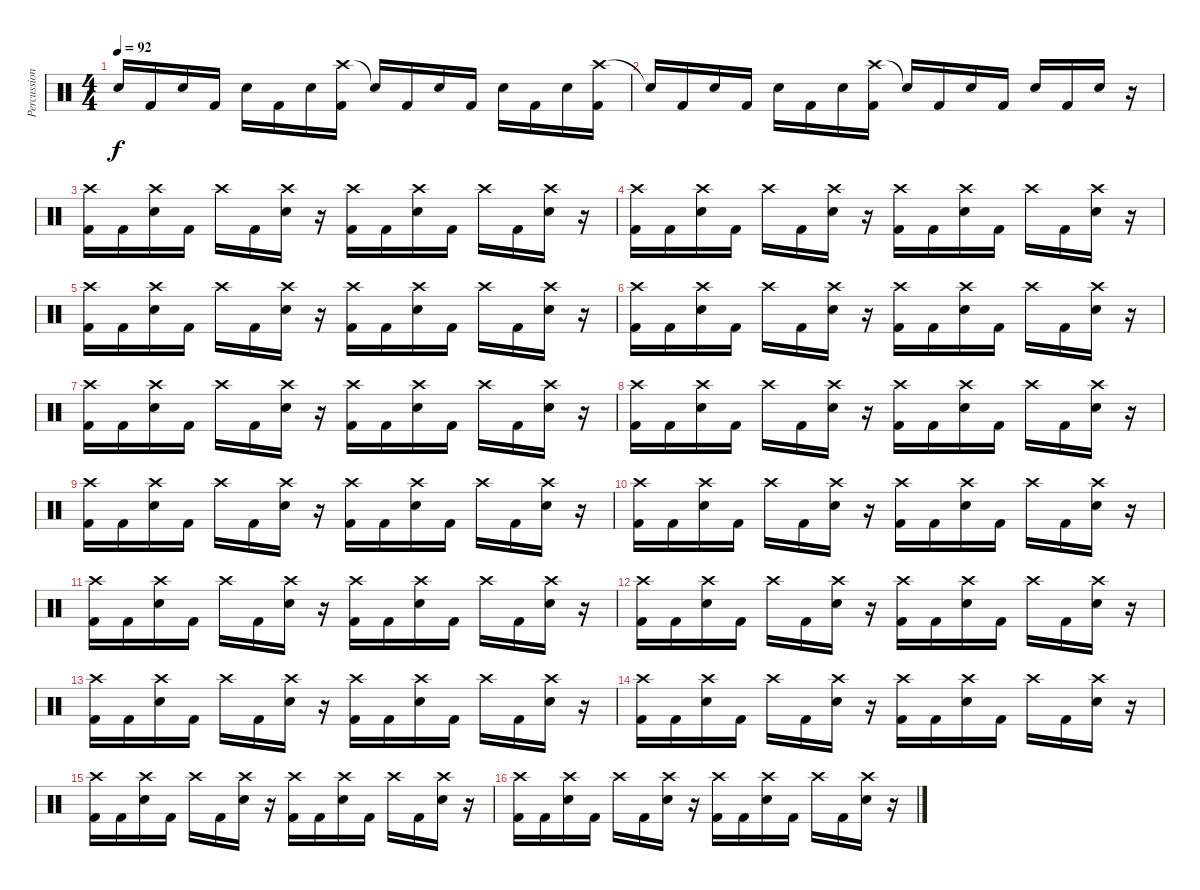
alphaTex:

\track ("Percussion" "Percussion") {instrument percussion}
\staff {score}
\articulation defaults
\ts (4 4)
\tempo 92
\clef neutral
\ks c "Snare (hit)"{t}.16{dy f} "Kick (hit) 2".16 "Snare (hit) 2".16 "Kick (hit) 2".16 "Snare (hit) 2".16 "Kick (hit) 2".16 "Snare (hit) 2".16
("Crash high (hit)" "Kick (hit) 2").16 "Snare (hit)"{t}.16 "Kick (hit) 2".16 "Snare (hit) 2".16 "Kick (hit) 2".16 "Snare (hit) 2".16 "Kick (hit) 2".16 "Snare (hit) 2".16 ("Crash high (hit)" "Kick (hit) 2").16 |
"Snare (hit)"{t}.16 "Kick (hit) 2".16 "Snare (hit) 2".16 "Kick (hit) 2".16 "Snare (hit) 2".16 "Kick (hit) 2".16 "Snare (hit) 2".16 ("Crash high (hit)" "Kick (hit) 2").16 "Snare (hit)"{t}.16 "Kick (hit) 2".16 "Snare (hit) 2".16 "Kick (hit) 2".16 "Snare (hit) 2".16 "Kick (hit) 2".16 "Snare (hit) 2".16 r.16 |
("Crash high (hit)" "Kick (hit) 2").16 "Kick (hit) 2".16 ("Crash high (hit)" "Snare (hit) 2").16 "Kick (hit) 2".16 "Crash high (hit)".16 "Kick (hit) 2".16 ("Crash high (hit)" "Snare (hit) 2").16 r.16 ("Crash high (hit)" "Kick (hit) 2").16 "Kick (hit) 2".16 ("Crash high (hit)" "Snare (hit) 2").16 "Kick (hit) 2".16 "Crash high (hit)".16 "Kick (hit) 2".16 ("Crash high (hit)" "Snare (hit) 2").16 r.16 |
("Crash high (hit)" "Kick (hit) 2").16 "Kick (hit) 2".16 ("Crash high (hit)" "Snare (hit) 2").16 "Kick (hit) 2".16 "Crash high (hit)".16 "Kick (hit) 2".16 ("Crash high (hit)" "Snare (hit) 2").16 r.16 ("Crash high (hit)" "Kick (hit) 2").16 "Kick (hit) 2".16 ("Crash high (hit)" "Snare (hit) 2").16 "Kick (hit) 2".16 "Crash high (hit)".16 "Kick (hit) 2".16 ("Crash high (hit)" "Snare (hit) 2").16 r.16 |
("Crash high (hit)" "Kick (hit) 2").16 "Kick (hit) 2".16 ("Crash high (hit)" "Snare (hit) 2").16 "Kick (hit) 2".16 "Crash high (hit)".16 "Kick (hit) 2".16 ("Crash high (hit)" "Snare (hit) 2").16 r.16 ("Crash high (hit)" "Kick (hit) 2").16 "Kick (hit) 2".16 ("Crash high (hit)" "Snare (hit) 2").16 "Kick (hit) 2".16 "Crash high (hit)".16 "Kick (hit) 2".16 ("Crash high (hit)" "Snare (hit) 2").16 r.16 |
("Crash high (hit)" "Kick (hit) 2").16 "Kick (hit) 2".16 ("Crash high (hit)" "Snare (hit) 2").16 "Kick (hit) 2".16 "Crash high (hit)".16 "Kick (hit) 2".16 ("Crash high (hit)" "Snare (hit) 2").16 r.16 ("Crash high (hit)" "Kick (hit) 2").16 "Kick (hit) 2".16 ("Crash high (hit)" "Snare (hit) 2").16 "Kick (hit) 2".16 "Crash high (hit)".16 "Kick (hit) 2".16 ("Crash high (hit)" "Snare (hit) 2").16 r.16 |
("Crash high (hit)" "Kick (hit) 2").16 "Kick (hit) 2".16 ("Crash high (hit)" "Snare (hit) 2").16 "Kick (hit) 2".16 "Crash high (hit)".16 "Kick (hit) 2".16 ("Crash high (hit)" "Snare (hit) 2").16 r.16 ("Crash high (hit)" "Kick (hit) 2").16 "Kick (hit) 2".16 ("Crash high (hit)" "Snare (hit) 2").16 "Kick (hit) 2".16 "Crash high (hit)".16 "Kick (hit) 2".16 ("Crash high (hit)" "Snare (hit) 2").16 r.16 |
("Crash high (hit)" "Kick (hit) 2").16 "Kick (hit) 2".16 ("Crash high (hit)" "Snare (hit) 2").16 "Kick (hit) 2".16 "Crash high (hit)".16 "Kick (hit) 2".16 ("Crash high (hit)" "Snare (hit) 2").16 r.16 ("Crash high (hit)" "Kick (hit) 2").16 "Kick (hit) 2".16 ("Crash high (hit)" "Snare (hit) 2").16 "Kick (hit) 2".16 "Crash high (hit)".16 "Kick (hit) 2".16 ("Crash high (hit)" "Snare (hit) 2").16 r.16 |
("Crash high (hit)" "Kick (hit) 2").16 "Kick (hit) 2".16 ("Crash high (hit)" "Snare (hit) 2").16 "Kick (hit) 2".16 "Crash high (hit)".16 "Kick (hit) 2".16 ("Crash high (hit)" "Snare (hit) 2").16 r.16 ("Crash high (hit)" "Kick (hit) 2").16 "Kick (hit) 2".16 ("Crash high (hit)" "Snare (hit) 2").16 "Kick (hit) 2".16 "Crash high (hit)".16 "Kick (hit) 2".16 ("Crash high (hit)" "Snare (hit) 2").16 r.16 |
("Crash high (hit)" "Kick (hit) 2").16 "Kick (hit) 2".16 ("Crash high (hit)" "Snare (hit) 2").16 "Kick (hit) 2".16 "Crash high (hit)".16 "Kick (hit) 2".16 ("Crash high (hit)" "Snare (hit) 2").16 r.16 ("Crash high (hit)" "Kick (hit) 2").16 "Kick (hit) 2".16 ("Crash high (hit)" "Snare (hit) 2").16 "Kick (hit) 2".16 "Crash high (hit)".16 "Kick (hit) 2".16 ("Crash high (hit)" "Snare (hit) 2").16 r.16 |
("Crash high (hit)" "Kick (hit) 2").16 "Kick (hit) 2".16 ("Crash high (hit)" "Snare (hit) 2").16 "Kick (hit) 2".16 "Crash high (hit)".16 "Kick (hit) 2".16 ("Crash high (hit)" "Snare (hit) 2").16 r.16 ("Crash high (hit)" "Kick (hit) 2").16 "Kick (hit) 2".16 ("Crash high (hit)" "Snare (hit) 2").16 "Kick (hit) 2".16 "Crash high (hit)".16 "Kick (hit) 2".16 ("Crash high (hit)" "Snare (hit) 2").16 r.16 |
("Crash high (hit)" "Kick (hit) 2").16 "Kick (hit) 2".16 ("Crash high (hit)" "Snare (hit) 2").16 "Kick (hit) 2".16 "Crash high (hit)".16 "Kick (hit) 2".16 ("Crash high (hit)" "Snare (hit) 2").16 r.16 ("Crash high (hit)" "Kick (hit) 2").16 "Kick (hit) 2".16 ("Crash high (hit)" "Snare (hit) 2").16 "Kick (hit) 2".16 "Crash high (hit)".16 "Kick (hit) 2".16 ("Crash high (hit)" "Snare (hit) 2").16 r.16 |
("Crash high (hit)" "Kick (hit) 2").16 "Kick (hit) 2".16 ("Crash high (hit)" "Snare (hit) 2").16 "Kick (hit) 2".16 "Crash high (hit)".16 "Kick (hit) 2".16 ("Crash high (hit)" "Snare (hit) 2").16 r.16 ("Crash high (hit)" "Kick (hit) 2").16 "Kick (hit) 2".16 ("Crash high (hit)" "Snare (hit) 2").16 "Kick (hit) 2".16 "Crash high (hit)".16 "Kick (hit) 2".16 ("Crash high (hit)" "Snare (hit) 2").16 r.16 |
("Crash high (hit)" "Kick (hit) 2").16 "Kick (hit) 2".16 ("Crash high (hit)" "Snare (hit) 2").16 "Kick (hit) 2".16 "Crash high (hit)".16 "Kick (hit) 2".16 ("Crash high (hit)" "Snare (hit) 2").16 r.16 ("Crash high (hit)" "Kick (hit) 2").16 "Kick (hit) 2".16 ("Crash high (hit)" "Snare (hit) 2").16 "Kick (hit) 2".16 "Crash high (hit)".16 "Kick (hit) 2".16 ("Crash high (hit)" "Snare (hit) 2").16 r.16 |
("Crash high (hit)" "Kick (hit) 2").16 "Kick (hit) 2".16 ("Crash high (hit)" "Snare (hit) 2").16 "Kick (hit) 2".16 "Crash high (hit)".16 "Kick (hit) 2".16 ("Crash high (hit)" "Snare (hit) 2").16 r.16 ("Crash high (hit)" "Kick (hit) 2").16 "Kick (hit) 2".16 ("Crash high (hit)" "Snare (hit) 2").16 "Kick (hit) 2".16 "Crash high (hit)".16 "Kick (hit) 2".16 ("Crash high (hit)" "Snare (hit) 2").16 r.16 |
("Crash high (hit)" "Kick (hit) 2").16 "Kick (hit) 2".16 ("Crash high (hit)" "Snare (hit) 2").16 "Kick (hit) 2".16 "Crash high (hit)".16 "Kick (hit) 2".16 ("Crash high (hit)" "Snare (hit) 2").16 r.16 ("Crash high (hit)" "Kick (hit) 2").16 "Kick (hit) 2".16 ("Crash high (hit)" "Snare (hit) 2").16 "Kick (hit) 2".16 "Crash high (hit)".16 "Kick (hit) 2".16 ("Crash high (hit)" "Snare (hit) 2").16 r.16
